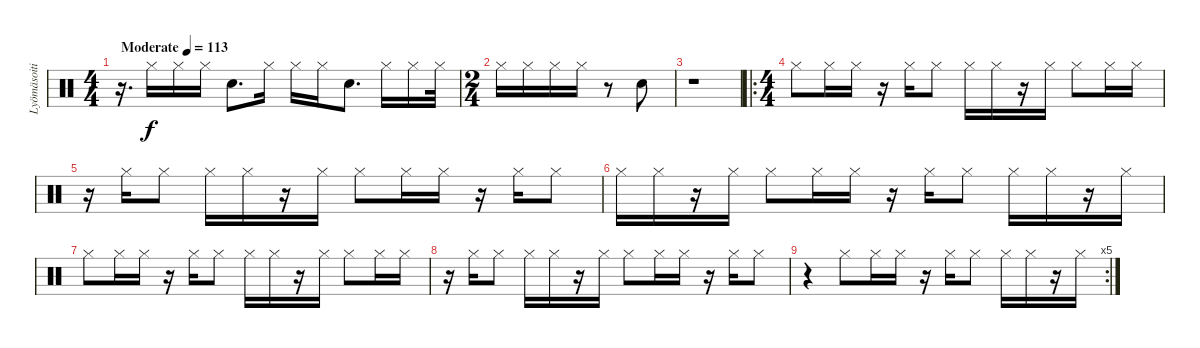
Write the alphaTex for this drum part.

\track ("Lyömäsoitin" "Lyömäsoiti") {instrument percussion}
\staff {score}
\articulation defaults
\ts (4 4)
\tempo (113 "Moderate")
\clef neutral
\ks c
r.16{d dy f} "Hi-Hat (closed)".16 "Hi-Hat (closed)".16 "Hi-Hat (closed)".16 "Snare (hit) 2".8{d} "Hi-Hat (closed)".16 "Hi-Hat (closed)".16 "Hi-Hat (closed)".16 "Snare (hit) 2".8{d} "Hi-Hat (closed)".16 "Hi-Hat (closed)".16 "Hi-Hat (closed)".32 |
\ts (2 4)
"Hi-Hat (closed)".16 "Hi-Hat (closed)".16 "Hi-Hat (closed)".16 "Hi-Hat (closed)".16 r.8 "Snare (hit) 2".8 |
r.1 |
\ro
\ts (4 4)
"Hi-Hat (closed)".8 "Hi-Hat (closed)".16 "Hi-Hat (closed)".16 r.16 "Hi-Hat (closed)".16 "Hi-Hat (closed)".8 "Hi-Hat (closed)".16 "Hi-Hat (closed)".16 r.16 "Hi-Hat (closed)".16 "Hi-Hat (closed)".8 "Hi-Hat (closed)".16 "Hi-Hat (closed)".16 |
r.16 "Hi-Hat (closed)".16 "Hi-Hat (closed)".8 "Hi-Hat (closed)".16 "Hi-Hat (closed)".16 r.16 "Hi-Hat (closed)".16 "Hi-Hat (closed)".8 "Hi-Hat (closed)".16 "Hi-Hat (closed)".16 r.16 "Hi-Hat (closed)".16 "Hi-Hat (closed)".8 |
"Hi-Hat (closed)".16 "Hi-Hat (closed)".16 r.16 "Hi-Hat (closed)".16 "Hi-Hat (closed)".8 "Hi-Hat (closed)".16 "Hi-Hat (closed)".16 r.16 "Hi-Hat (closed)".16 "Hi-Hat (closed)".8 "Hi-Hat (closed)".16 "Hi-Hat (closed)".16 r.16 "Hi-Hat (closed)".16 |
"Hi-Hat (closed)".8 "Hi-Hat (closed)".16 "Hi-Hat (closed)".16 r.16 "Hi-Hat (closed)".16 "Hi-Hat (closed)".8 "Hi-Hat (closed)".16 "Hi-Hat (closed)".16 r.16 "Hi-Hat (closed)".16 "Hi-Hat (closed)".8 "Hi-Hat (closed)".16 "Hi-Hat (closed)".16 |
r.16 "Hi-Hat (closed)".16 "Hi-Hat (closed)".8 "Hi-Hat (closed)".16 "Hi-Hat (closed)".16 r.16 "Hi-Hat (closed)".16 "Hi-Hat (closed)".8 "Hi-Hat (closed)".16 "Hi-Hat (closed)".16 r.16 "Hi-Hat (closed)".16 "Hi-Hat (closed)".8 |
\rc 5
r.4 "Hi-Hat (closed)".8 "Hi-Hat (closed)".16 "Hi-Hat (closed)".16 r.16 "Hi-Hat (closed)".16 "Hi-Hat (closed)".8 "Hi-Hat (closed)".16 "Hi-Hat (closed)".16 r.16 "Hi-Hat (closed)".16
